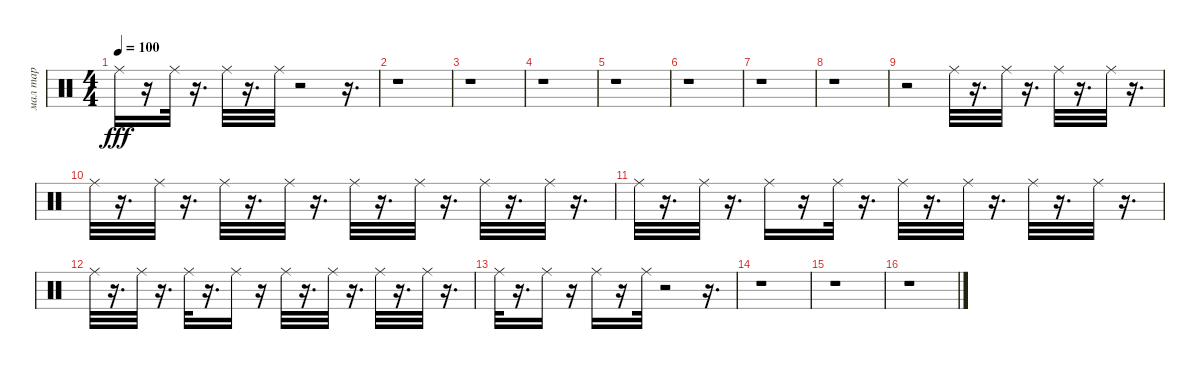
\track ("мал тар" "мал тар") {instrument percussion}
\staff {score}
\articulation defaults
\ts (4 4)
\tempo 100
\clef neutral
\ks c "Ride (middle)".16{dy fff}
r.16 "Ride (middle)".32 r.16{d} "Ride (middle)".32 r.16{d} "Ride (middle)".32 r.2 r.16{d} |
r.1 |
r.1 |
r.1 |
r.1 |
r.1 |
r.1 |
r.1 |
r.2 "Ride (middle)".32 r.16{d} "Ride (middle)".32 r.16{d} "Ride (middle)".32 r.16{d} "Ride (middle)".32 r.16{d} |
"Ride (middle)".32 r.16{d} "Ride (middle)".32 r.16{d} "Ride (middle)".32 r.16{d} "Ride (middle)".32 r.16{d} "Ride (middle)".32 r.16{d} "Ride (middle)".32 r.16{d} "Ride (middle)".32 r.16{d} "Ride (middle)".32 r.16{d} |
"Ride (middle)".32 r.16{d} "Ride (middle)".32 r.16{d} "Ride (middle)".16 r.16 "Ride (middle)".32 r.16{d} "Ride (middle)".32 r.16{d} "Ride (middle)".32 r.16{d} "Ride (middle)".32 r.16{d} "Ride (middle)".32 r.16{d} |
"Ride (middle)".32 r.16{d} "Ride (middle)".32 r.16{d} "Ride (middle)".32 r.16{d} "Ride (middle)".16 r.16 "Ride (middle)".32 r.16{d} "Ride (middle)".32 r.16{d} "Ride (middle)".32 r.16{d} "Ride (middle)".32 r.16{d} |
"Ride (middle)".32 r.16{d} "Ride (middle)".16 r.16 "Ride (middle)".16 r.16 "Ride (middle)".32 r.2 r.16{d} |
r.1 |
r.1 |
r.1
